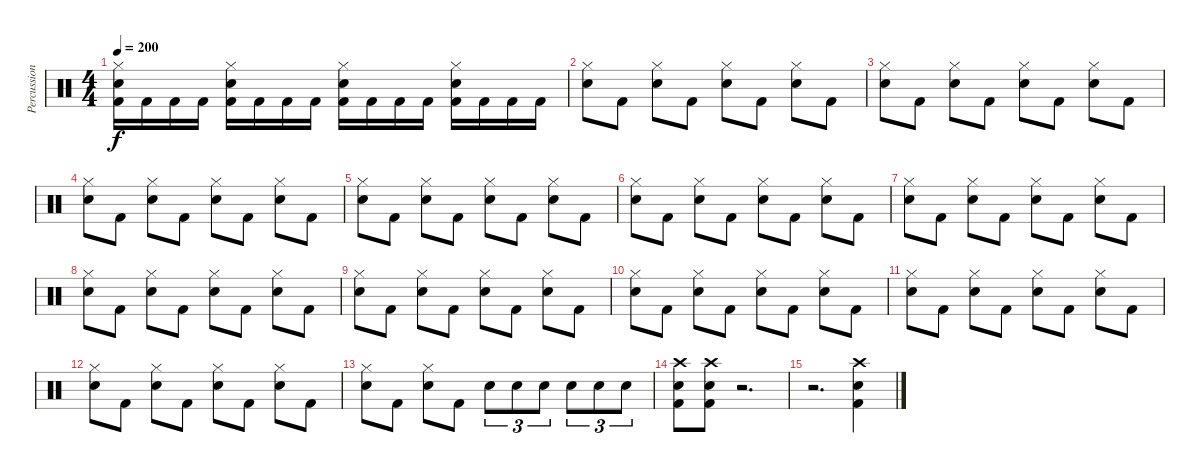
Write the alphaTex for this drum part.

\track ("Percussion" "Percussion") {instrument percussion}
\staff {score}
\articulation defaults
\ts (4 4)
\tempo 200
\clef neutral
\ks c
("Hi-Hat (closed)" "Snare (hit) 2" "Kick (hit) 2").16{dy f} "Kick (hit) 2".16 "Kick (hit) 2".16 "Kick (hit) 2".16 ("Hi-Hat (closed)" "Snare (hit) 2" "Kick (hit) 2").16 "Kick (hit) 2".16 "Kick (hit) 2".16 "Kick (hit) 2".16 ("Hi-Hat (closed)" "Snare (hit) 2" "Kick (hit) 2").16 "Kick (hit) 2".16 "Kick (hit) 2".16 "Kick (hit) 2".16 ("Hi-Hat (closed)" "Snare (hit) 2" "Kick (hit) 2").16 "Kick (hit) 2".16 "Kick (hit) 2".16 "Kick (hit) 2".16 |
("Hi-Hat (closed)" "Snare (hit) 2").8 "Kick (hit) 2".8 ("Hi-Hat (closed)" "Snare (hit) 2").8 "Kick (hit) 2".8 ("Hi-Hat (closed)" "Snare (hit) 2").8 "Kick (hit) 2".8 ("Hi-Hat (closed)" "Snare (hit) 2").8 "Kick (hit) 2".8 |
("Hi-Hat (closed)" "Snare (hit) 2").8 "Kick (hit) 2".8 ("Hi-Hat (closed)" "Snare (hit) 2").8 "Kick (hit) 2".8 ("Hi-Hat (closed)" "Snare (hit) 2").8 "Kick (hit) 2".8 ("Hi-Hat (closed)" "Snare (hit) 2").8 "Kick (hit) 2".8 |
("Hi-Hat (closed)" "Snare (hit) 2").8 "Kick (hit) 2".8 ("Hi-Hat (closed)" "Snare (hit) 2").8 "Kick (hit) 2".8 ("Hi-Hat (closed)" "Snare (hit) 2").8 "Kick (hit) 2".8 ("Hi-Hat (closed)" "Snare (hit) 2").8 "Kick (hit) 2".8 |
("Hi-Hat (closed)" "Snare (hit) 2").8 "Kick (hit) 2".8 ("Hi-Hat (closed)" "Snare (hit) 2").8 "Kick (hit) 2".8 ("Hi-Hat (closed)" "Snare (hit) 2").8 "Kick (hit) 2".8 ("Hi-Hat (closed)" "Snare (hit) 2").8 "Kick (hit) 2".8 |
("Hi-Hat (closed)" "Snare (hit) 2").8 "Kick (hit) 2".8 ("Hi-Hat (closed)" "Snare (hit) 2").8 "Kick (hit) 2".8 ("Hi-Hat (closed)" "Snare (hit) 2").8 "Kick (hit) 2".8 ("Hi-Hat (closed)" "Snare (hit) 2").8 "Kick (hit) 2".8 |
("Hi-Hat (closed)" "Snare (hit) 2").8 "Kick (hit) 2".8 ("Hi-Hat (closed)" "Snare (hit) 2").8 "Kick (hit) 2".8 ("Hi-Hat (closed)" "Snare (hit) 2").8 "Kick (hit) 2".8 ("Hi-Hat (closed)" "Snare (hit) 2").8 "Kick (hit) 2".8 |
("Hi-Hat (closed)" "Snare (hit) 2").8 "Kick (hit) 2".8 ("Hi-Hat (closed)" "Snare (hit) 2").8 "Kick (hit) 2".8 ("Hi-Hat (closed)" "Snare (hit) 2").8 "Kick (hit) 2".8 ("Hi-Hat (closed)" "Snare (hit) 2").8 "Kick (hit) 2".8 |
("Hi-Hat (closed)" "Snare (hit) 2").8 "Kick (hit) 2".8 ("Hi-Hat (closed)" "Snare (hit) 2").8 "Kick (hit) 2".8 ("Hi-Hat (closed)" "Snare (hit) 2").8 "Kick (hit) 2".8 ("Hi-Hat (closed)" "Snare (hit) 2").8 "Kick (hit) 2".8 |
("Hi-Hat (closed)" "Snare (hit) 2").8 "Kick (hit) 2".8 ("Hi-Hat (closed)" "Snare (hit) 2").8 "Kick (hit) 2".8 ("Hi-Hat (closed)" "Snare (hit) 2").8 "Kick (hit) 2".8 ("Hi-Hat (closed)" "Snare (hit) 2").8 "Kick (hit) 2".8 |
("Hi-Hat (closed)" "Snare (hit) 2").8 "Kick (hit) 2".8 ("Hi-Hat (closed)" "Snare (hit) 2").8 "Kick (hit) 2".8 ("Hi-Hat (closed)" "Snare (hit) 2").8 "Kick (hit) 2".8 ("Hi-Hat (closed)" "Snare (hit) 2").8 "Kick (hit) 2".8 |
("Hi-Hat (closed)" "Snare (hit) 2").8 "Kick (hit) 2".8 ("Hi-Hat (closed)" "Snare (hit) 2").8 "Kick (hit) 2".8 ("Hi-Hat (closed)" "Snare (hit) 2").8 "Kick (hit) 2".8 ("Hi-Hat (closed)" "Snare (hit) 2").8 "Kick (hit) 2".8 |
("Hi-Hat (closed)" "Snare (hit) 2").8 "Kick (hit) 2".8 ("Hi-Hat (closed)" "Snare (hit) 2").8 "Kick (hit) 2".8 "Snare (hit) 2".8{tu (3 2)} "Snare (hit) 2".8{tu (3 2)} "Snare (hit) 2".8{tu (3 2)} "Snare (hit) 2".8{tu (3 2)} "Snare (hit) 2".8{tu (3 2)} "Snare (hit) 2".8{tu (3 2)} |
("Crash high (hit)" "Snare (hit) 2" "Kick (hit) 2").8 ("Crash high (hit)" "Snare (hit) 2" "Kick (hit) 2").8 r.2{d} |
r.2{d} ("Crash high (hit)" "Snare (hit) 2" "Kick (hit) 2").4
